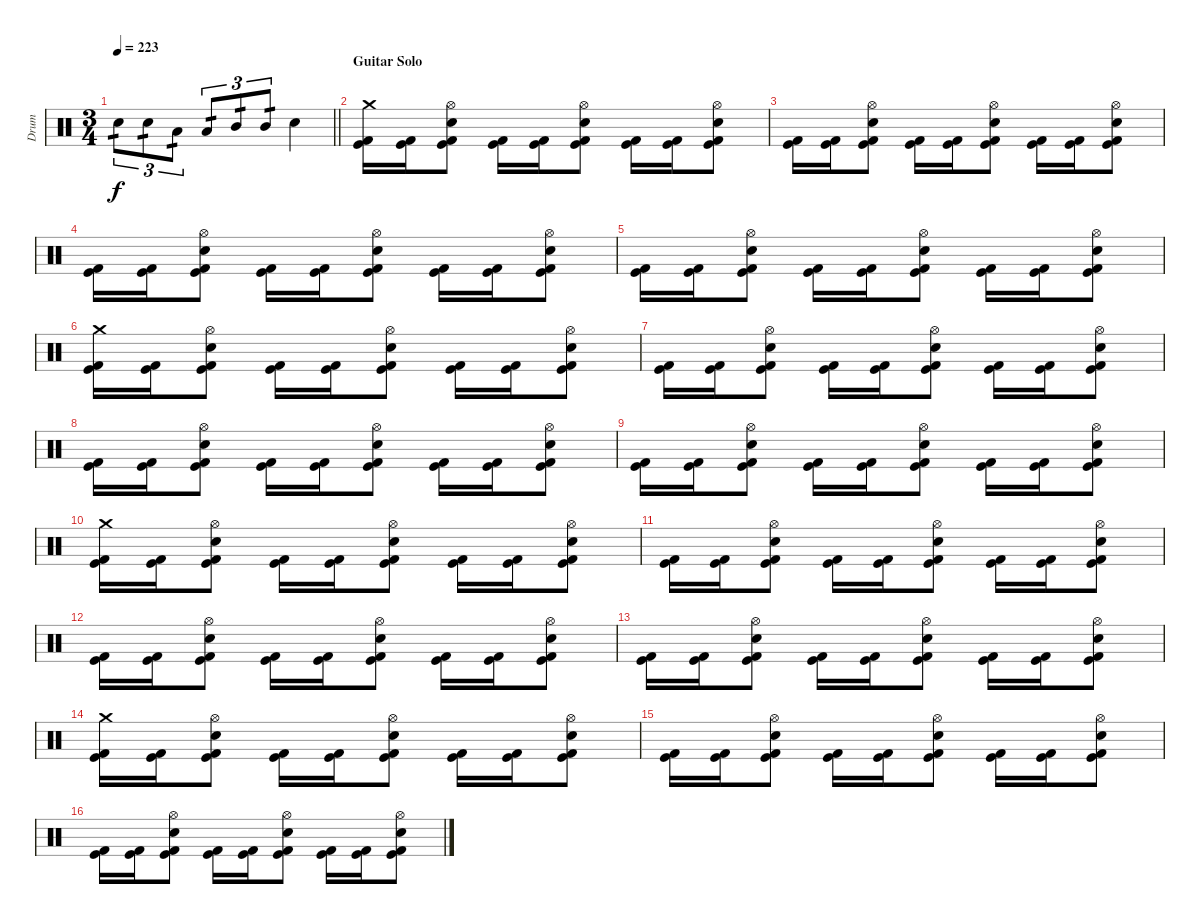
\track ("Drum" "Drum") {instrument percussion}
\staff {score}
\articulation defaults
\ts (3 4)
\tempo 223
\clef neutral
\barLineRight lightlight
\ks c "Electric Snare (hit)".8{tu (3 2) tp 1 dy f} "Electric Snare (hit)".8{tu (3 2) tp 1} "Low Tom (hit)".8{tu (3 2) tp 1} "Low Tom (hit)".8{tu (3 2) tp 1} "Mid Tom (hit)".8{tu (3 2) tp 1} "Mid Tom (hit)".8{tu (3 2) tp 1} "Electric Snare (hit)".4
|
\section ("" "Guitar Solo")
("Crash medium (hit)" "Kick (hit)" "Kick (hit) 2").16 ("Kick (hit)" "Kick (hit) 2").16 ("Hi-Hat (open)" "Electric Snare (hit)" "Kick (hit)" "Kick (hit) 2").8 ("Kick (hit)" "Kick (hit) 2").16 ("Kick (hit)" "Kick (hit) 2").16 ("Hi-Hat (open)" "Electric Snare (hit)" "Kick (hit)" "Kick (hit) 2").8 ("Kick (hit)" "Kick (hit) 2").16 ("Kick (hit)" "Kick (hit) 2").16 ("Hi-Hat (open)" "Electric Snare (hit)" "Kick (hit)" "Kick (hit) 2").8 |
("Kick (hit)" "Kick (hit) 2").16 ("Kick (hit)" "Kick (hit) 2").16 ("Hi-Hat (open)" "Electric Snare (hit)" "Kick (hit)" "Kick (hit) 2").8 ("Kick (hit)" "Kick (hit) 2").16 ("Kick (hit)" "Kick (hit) 2").16 ("Hi-Hat (open)" "Electric Snare (hit)" "Kick (hit)" "Kick (hit) 2").8 ("Kick (hit)" "Kick (hit) 2").16 ("Kick (hit)" "Kick (hit) 2").16 ("Hi-Hat (open)" "Electric Snare (hit)" "Kick (hit)" "Kick (hit) 2").8 |
("Kick (hit)" "Kick (hit) 2").16 ("Kick (hit)" "Kick (hit) 2").16 ("Hi-Hat (open)" "Electric Snare (hit)" "Kick (hit)" "Kick (hit) 2").8 ("Kick (hit)" "Kick (hit) 2").16 ("Kick (hit)" "Kick (hit) 2").16 ("Hi-Hat (open)" "Electric Snare (hit)" "Kick (hit)" "Kick (hit) 2").8 ("Kick (hit)" "Kick (hit) 2").16 ("Kick (hit)" "Kick (hit) 2").16 ("Hi-Hat (open)" "Electric Snare (hit)" "Kick (hit)" "Kick (hit) 2").8 |
("Kick (hit)" "Kick (hit) 2").16 ("Kick (hit)" "Kick (hit) 2").16 ("Hi-Hat (open)" "Electric Snare (hit)" "Kick (hit)" "Kick (hit) 2").8 ("Kick (hit)" "Kick (hit) 2").16 ("Kick (hit)" "Kick (hit) 2").16 ("Hi-Hat (open)" "Electric Snare (hit)" "Kick (hit)" "Kick (hit) 2").8 ("Kick (hit)" "Kick (hit) 2").16 ("Kick (hit)" "Kick (hit) 2").16 ("Hi-Hat (open)" "Electric Snare (hit)" "Kick (hit)" "Kick (hit) 2").8 |
("Crash medium (hit)" "Kick (hit)" "Kick (hit) 2").16 ("Kick (hit)" "Kick (hit) 2").16 ("Hi-Hat (open)" "Electric Snare (hit)" "Kick (hit)" "Kick (hit) 2").8 ("Kick (hit)" "Kick (hit) 2").16 ("Kick (hit)" "Kick (hit) 2").16 ("Hi-Hat (open)" "Electric Snare (hit)" "Kick (hit)" "Kick (hit) 2").8 ("Kick (hit)" "Kick (hit) 2").16 ("Kick (hit)" "Kick (hit) 2").16 ("Hi-Hat (open)" "Electric Snare (hit)" "Kick (hit)" "Kick (hit) 2").8 |
("Kick (hit)" "Kick (hit) 2").16 ("Kick (hit)" "Kick (hit) 2").16 ("Hi-Hat (open)" "Electric Snare (hit)" "Kick (hit)" "Kick (hit) 2").8 ("Kick (hit)" "Kick (hit) 2").16 ("Kick (hit)" "Kick (hit) 2").16 ("Hi-Hat (open)" "Electric Snare (hit)" "Kick (hit)" "Kick (hit) 2").8 ("Kick (hit)" "Kick (hit) 2").16 ("Kick (hit)" "Kick (hit) 2").16 ("Hi-Hat (open)" "Electric Snare (hit)" "Kick (hit)" "Kick (hit) 2").8 |
("Kick (hit)" "Kick (hit) 2").16 ("Kick (hit)" "Kick (hit) 2").16 ("Hi-Hat (open)" "Electric Snare (hit)" "Kick (hit)" "Kick (hit) 2").8 ("Kick (hit)" "Kick (hit) 2").16 ("Kick (hit)" "Kick (hit) 2").16 ("Hi-Hat (open)" "Electric Snare (hit)" "Kick (hit)" "Kick (hit) 2").8 ("Kick (hit)" "Kick (hit) 2").16 ("Kick (hit)" "Kick (hit) 2").16 ("Hi-Hat (open)" "Electric Snare (hit)" "Kick (hit)" "Kick (hit) 2").8 |
("Kick (hit)" "Kick (hit) 2").16 ("Kick (hit)" "Kick (hit) 2").16 ("Hi-Hat (open)" "Electric Snare (hit)" "Kick (hit)" "Kick (hit) 2").8 ("Kick (hit)" "Kick (hit) 2").16 ("Kick (hit)" "Kick (hit) 2").16 ("Hi-Hat (open)" "Electric Snare (hit)" "Kick (hit)" "Kick (hit) 2").8 ("Kick (hit)" "Kick (hit) 2").16 ("Kick (hit)" "Kick (hit) 2").16 ("Hi-Hat (open)" "Electric Snare (hit)" "Kick (hit)" "Kick (hit) 2").8 |
("Crash medium (hit)" "Kick (hit)" "Kick (hit) 2").16 ("Kick (hit)" "Kick (hit) 2").16 ("Hi-Hat (open)" "Electric Snare (hit)" "Kick (hit)" "Kick (hit) 2").8 ("Kick (hit)" "Kick (hit) 2").16 ("Kick (hit)" "Kick (hit) 2").16 ("Hi-Hat (open)" "Electric Snare (hit)" "Kick (hit)" "Kick (hit) 2").8 ("Kick (hit)" "Kick (hit) 2").16 ("Kick (hit)" "Kick (hit) 2").16 ("Hi-Hat (open)" "Electric Snare (hit)" "Kick (hit)" "Kick (hit) 2").8 |
("Kick (hit)" "Kick (hit) 2").16 ("Kick (hit)" "Kick (hit) 2").16 ("Hi-Hat (open)" "Electric Snare (hit)" "Kick (hit)" "Kick (hit) 2").8 ("Kick (hit)" "Kick (hit) 2").16 ("Kick (hit)" "Kick (hit) 2").16 ("Hi-Hat (open)" "Electric Snare (hit)" "Kick (hit)" "Kick (hit) 2").8 ("Kick (hit)" "Kick (hit) 2").16 ("Kick (hit)" "Kick (hit) 2").16 ("Hi-Hat (open)" "Electric Snare (hit)" "Kick (hit)" "Kick (hit) 2").8 |
("Kick (hit)" "Kick (hit) 2").16 ("Kick (hit)" "Kick (hit) 2").16 ("Hi-Hat (open)" "Electric Snare (hit)" "Kick (hit)" "Kick (hit) 2").8 ("Kick (hit)" "Kick (hit) 2").16 ("Kick (hit)" "Kick (hit) 2").16 ("Hi-Hat (open)" "Electric Snare (hit)" "Kick (hit)" "Kick (hit) 2").8 ("Kick (hit)" "Kick (hit) 2").16 ("Kick (hit)" "Kick (hit) 2").16 ("Hi-Hat (open)" "Electric Snare (hit)" "Kick (hit)" "Kick (hit) 2").8 |
("Kick (hit)" "Kick (hit) 2").16 ("Kick (hit)" "Kick (hit) 2").16 ("Hi-Hat (open)" "Electric Snare (hit)" "Kick (hit)" "Kick (hit) 2").8 ("Kick (hit)" "Kick (hit) 2").16 ("Kick (hit)" "Kick (hit) 2").16 ("Hi-Hat (open)" "Electric Snare (hit)" "Kick (hit)" "Kick (hit) 2").8 ("Kick (hit)" "Kick (hit) 2").16 ("Kick (hit)" "Kick (hit) 2").16 ("Hi-Hat (open)" "Electric Snare (hit)" "Kick (hit)" "Kick (hit) 2").8 |
("Crash medium (hit)" "Kick (hit)" "Kick (hit) 2").16 ("Kick (hit)" "Kick (hit) 2").16 ("Hi-Hat (open)" "Electric Snare (hit)" "Kick (hit)" "Kick (hit) 2").8 ("Kick (hit)" "Kick (hit) 2").16 ("Kick (hit)" "Kick (hit) 2").16 ("Hi-Hat (open)" "Electric Snare (hit)" "Kick (hit)" "Kick (hit) 2").8 ("Kick (hit)" "Kick (hit) 2").16 ("Kick (hit)" "Kick (hit) 2").16 ("Hi-Hat (open)" "Electric Snare (hit)" "Kick (hit)" "Kick (hit) 2").8 |
("Kick (hit)" "Kick (hit) 2").16 ("Kick (hit)" "Kick (hit) 2").16 ("Hi-Hat (open)" "Electric Snare (hit)" "Kick (hit)" "Kick (hit) 2").8 ("Kick (hit)" "Kick (hit) 2").16 ("Kick (hit)" "Kick (hit) 2").16 ("Hi-Hat (open)" "Electric Snare (hit)" "Kick (hit)" "Kick (hit) 2").8 ("Kick (hit)" "Kick (hit) 2").16 ("Kick (hit)" "Kick (hit) 2").16 ("Hi-Hat (open)" "Electric Snare (hit)" "Kick (hit)" "Kick (hit) 2").8 |
("Kick (hit)" "Kick (hit) 2").16 ("Kick (hit)" "Kick (hit) 2").16 ("Hi-Hat (open)" "Electric Snare (hit)" "Kick (hit)" "Kick (hit) 2").8 ("Kick (hit)" "Kick (hit) 2").16 ("Kick (hit)" "Kick (hit) 2").16 ("Hi-Hat (open)" "Electric Snare (hit)" "Kick (hit)" "Kick (hit) 2").8 ("Kick (hit)" "Kick (hit) 2").16 ("Kick (hit)" "Kick (hit) 2").16 ("Hi-Hat (open)" "Electric Snare (hit)" "Kick (hit)" "Kick (hit) 2").8
